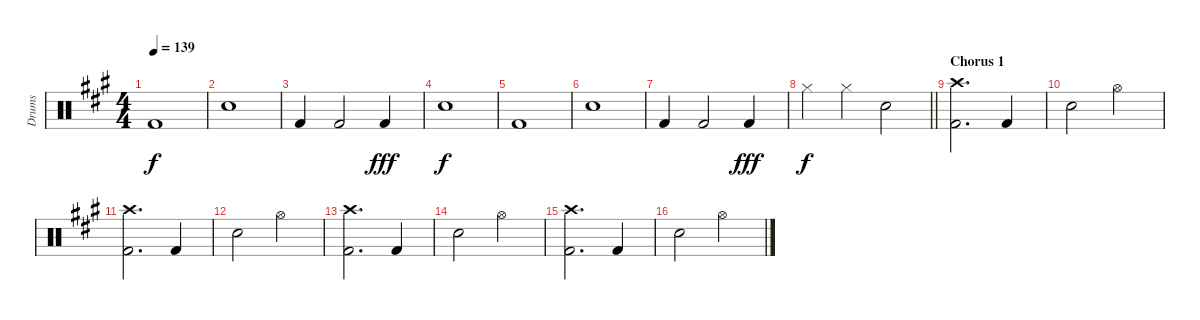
\track ("Drums" "Drums") {instrument percussion}
\staff {score}
\articulation defaults
\ts (4 4)
\tempo 139
\clef neutral
\ks a "Kick (hit) 2".1{dy f}
|
"Electric Snare (hit)".1 |
"Kick (hit) 2".4 "Kick (hit) 2".2 "Kick (hit) 2".4{dy fff} |
"Electric Snare (hit)".1{dy f} |
"Kick (hit) 2".1 |
"Electric Snare (hit)".1 |
"Kick (hit) 2".4 "Kick (hit) 2".2 "Kick (hit) 2".4{dy fff} |
\barLineRight lightlight "Hi-Hat (closed)".4{dy f} "Hi-Hat (closed)".4 "Electric Snare (hit)".2
|
\section ("" "Chorus 1")
("Crash high (hit)" "Kick (hit) 2").2{d} "Kick (hit) 2".4 |
"Snare (hit) 2".2 "Hi-Hat (open)".2 |
("Crash high (hit)" "Kick (hit) 2").2{d} "Kick (hit) 2".4 |
"Snare (hit) 2".2 "Hi-Hat (open)".2 |
("Crash high (hit)" "Kick (hit) 2").2{d} "Kick (hit) 2".4 |
"Snare (hit) 2".2 "Hi-Hat (open)".2 |
("Crash high (hit)" "Kick (hit) 2").2{d} "Kick (hit) 2".4 |
"Snare (hit) 2".2 "Hi-Hat (open)".2
